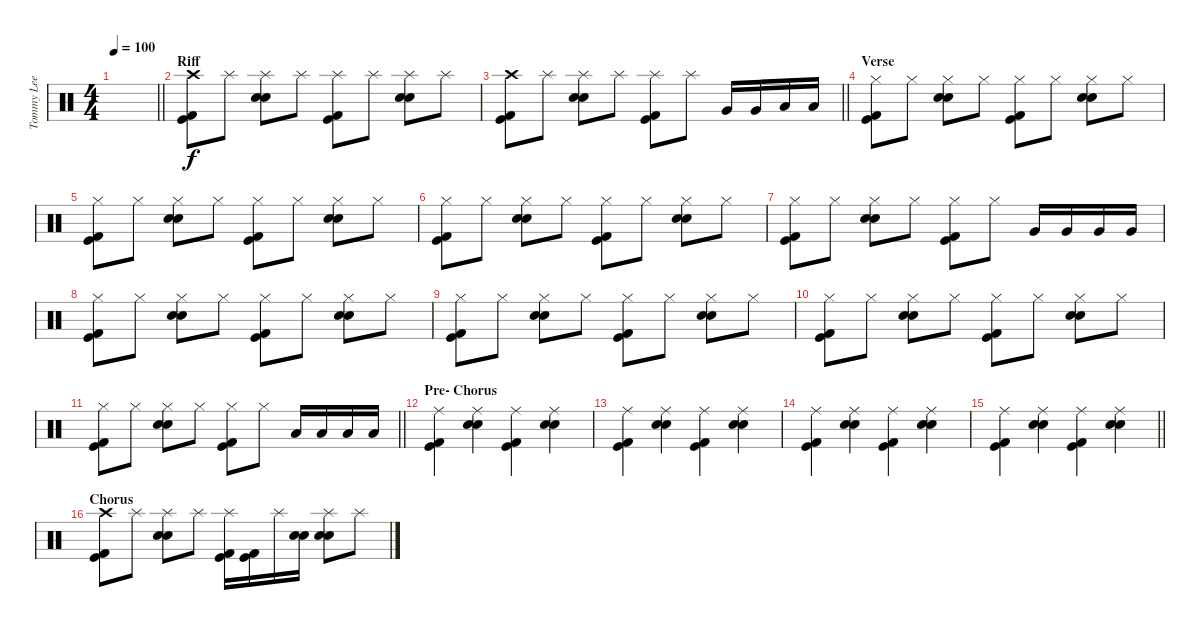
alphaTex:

\track ("Tommy Lee" "Tommy Lee") {instrument percussion}
\staff {score}
\articulation defaults
\ts (4 4)
\tempo 100
\clef neutral
\barLineRight lightlight
\ks c
|
\section ("" "Riff")
("Crash high (hit)" "Kick (hit) 2" "Kick (hit)").8 "Splash (hit)".8 ("Splash (hit)" "Electric Snare (hit)" "Snare (hit) 2").8 "Splash (hit)".8 ("Splash (hit)" "Kick (hit) 2" "Kick (hit)").8 "Splash (hit)".8 ("Splash (hit)" "Electric Snare (hit)" "Snare (hit) 2").8 "Splash (hit)".8 |
\barLineRight lightlight
("Crash high (hit)" "Kick (hit) 2" "Kick (hit)").8 "Splash (hit)".8 ("Splash (hit)" "Electric Snare (hit)" "Snare (hit) 2").8 "Splash (hit)".8 ("Splash (hit)" "Kick (hit) 2" "Kick (hit)").8 "Splash (hit)".8 "Very Low Tom (hit)".16 "Very Low Tom (hit)".16 "Low Floor Tom (hit)".16 "Low Floor Tom (hit)".16 |
\section ("" "Verse")
("Hi-Hat (closed)" "Kick (hit) 2" "Kick (hit)").8 "Hi-Hat (closed)".8 ("Hi-Hat (closed)" "Electric Snare (hit)" "Snare (hit) 2").8 "Hi-Hat (closed)".8 ("Hi-Hat (closed)" "Kick (hit) 2" "Kick (hit)").8 "Hi-Hat (closed)".8 ("Hi-Hat (closed)" "Electric Snare (hit)" "Snare (hit) 2").8 "Hi-Hat (closed)".8 |
("Hi-Hat (closed)" "Kick (hit) 2" "Kick (hit)").8 "Hi-Hat (closed)".8 ("Hi-Hat (closed)" "Electric Snare (hit)" "Snare (hit) 2").8 "Hi-Hat (closed)".8 ("Hi-Hat (closed)" "Kick (hit) 2" "Kick (hit)").8 "Hi-Hat (closed)".8 ("Hi-Hat (closed)" "Electric Snare (hit)" "Snare (hit) 2").8 "Hi-Hat (closed)".8 |
("Hi-Hat (closed)" "Kick (hit) 2" "Kick (hit)").8 "Hi-Hat (closed)".8 ("Hi-Hat (closed)" "Electric Snare (hit)" "Snare (hit) 2").8 "Hi-Hat (closed)".8 ("Hi-Hat (closed)" "Kick (hit) 2" "Kick (hit)").8 "Hi-Hat (closed)".8 ("Hi-Hat (closed)" "Electric Snare (hit)" "Snare (hit) 2").8 "Hi-Hat (closed)".8 |
("Hi-Hat (closed)" "Kick (hit) 2" "Kick (hit)").8 "Hi-Hat (closed)".8 ("Hi-Hat (closed)" "Electric Snare (hit)" "Snare (hit) 2").8 "Hi-Hat (closed)".8 ("Hi-Hat (closed)" "Kick (hit) 2" "Kick (hit)").8 "Hi-Hat (closed)".8 "Very Low Tom (hit)".16 "Very Low Tom (hit)".16 "Very Low Tom (hit)".16 "Very Low Tom (hit)".16 |
("Hi-Hat (closed)" "Kick (hit) 2" "Kick (hit)").8 "Hi-Hat (closed)".8 ("Hi-Hat (closed)" "Electric Snare (hit)" "Snare (hit) 2").8 "Hi-Hat (closed)".8 ("Hi-Hat (closed)" "Kick (hit) 2" "Kick (hit)").8 "Hi-Hat (closed)".8 ("Hi-Hat (closed)" "Electric Snare (hit)" "Snare (hit) 2").8 "Hi-Hat (closed)".8 |
("Hi-Hat (closed)" "Kick (hit) 2" "Kick (hit)").8 "Hi-Hat (closed)".8 ("Hi-Hat (closed)" "Electric Snare (hit)" "Snare (hit) 2").8 "Hi-Hat (closed)".8 ("Hi-Hat (closed)" "Kick (hit) 2" "Kick (hit)").8 "Hi-Hat (closed)".8 ("Hi-Hat (closed)" "Electric Snare (hit)" "Snare (hit) 2").8 "Hi-Hat (closed)".8 |
("Hi-Hat (closed)" "Kick (hit) 2" "Kick (hit)").8 "Hi-Hat (closed)".8 ("Hi-Hat (closed)" "Electric Snare (hit)" "Snare (hit) 2").8 "Hi-Hat (closed)".8 ("Hi-Hat (closed)" "Kick (hit) 2" "Kick (hit)").8 "Hi-Hat (closed)".8 ("Hi-Hat (closed)" "Electric Snare (hit)" "Snare (hit) 2").8 "Hi-Hat (closed)".8 |
\barLineRight lightlight
("Hi-Hat (closed)" "Kick (hit) 2" "Kick (hit)").8 "Hi-Hat (closed)".8 ("Hi-Hat (closed)" "Electric Snare (hit)" "Snare (hit) 2").8 "Hi-Hat (closed)".8 ("Hi-Hat (closed)" "Kick (hit) 2" "Kick (hit)").8 "Hi-Hat (closed)".8 "Low Floor Tom (hit)".16 "Low Floor Tom (hit)".16 "Low Floor Tom (hit)".16 "Low Floor Tom (hit)".16 |
\section ("" "Pre- Chorus")
("Ride (middle)" "Kick (hit) 2" "Kick (hit)").4 ("Ride (middle)" "Electric Snare (hit)" "Snare (hit) 2").4 ("Ride (middle)" "Kick (hit) 2" "Kick (hit)").4 ("Ride (middle)" "Electric Snare (hit)" "Snare (hit) 2").4 |
("Ride (middle)" "Kick (hit) 2" "Kick (hit)").4 ("Ride (middle)" "Electric Snare (hit)" "Snare (hit) 2").4 ("Ride (middle)" "Kick (hit) 2" "Kick (hit)").4 ("Ride (middle)" "Electric Snare (hit)" "Snare (hit) 2").4 |
("Ride (middle)" "Kick (hit) 2" "Kick (hit)").4 ("Ride (middle)" "Electric Snare (hit)" "Snare (hit) 2").4 ("Ride (middle)" "Kick (hit) 2" "Kick (hit)").4 ("Ride (middle)" "Electric Snare (hit)" "Snare (hit) 2").4 |
\barLineRight lightlight
("Ride (middle)" "Kick (hit) 2" "Kick (hit)").4 ("Ride (middle)" "Electric Snare (hit)" "Snare (hit) 2").4 ("Ride (middle)" "Kick (hit) 2" "Kick (hit)").4 ("Ride (middle)" "Electric Snare (hit)" "Snare (hit) 2").4 |
\section ("" "Chorus")
("Crash high (hit)" "Kick (hit) 2" "Kick (hit)").8 "Splash (hit)".8 ("Splash (hit)" "Electric Snare (hit)" "Snare (hit) 2").8 "Splash (hit)".8 ("Splash (hit)" "Kick (hit) 2" "Kick (hit)").16 ("Kick (hit) 2" "Kick (hit)").16 "Splash (hit)".16 ("Electric Snare (hit)" "Snare (hit) 2").16 ("Splash (hit)" "Electric Snare (hit)" "Snare (hit) 2").8 "Splash (hit)".8
